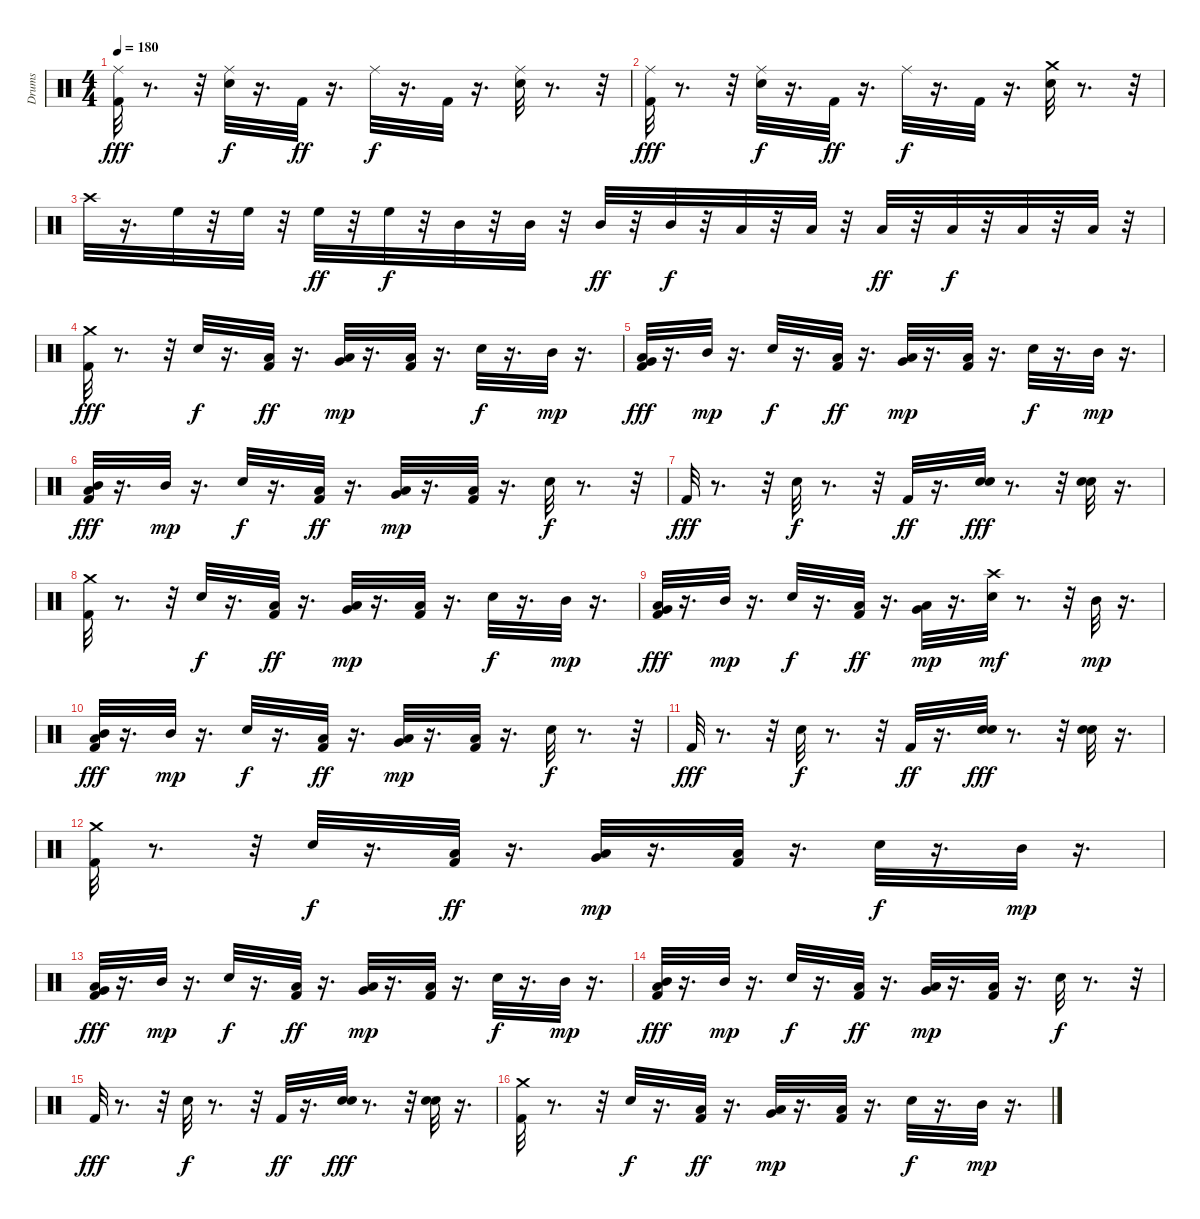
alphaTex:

\track ("Drums" "Drums") {instrument percussion}
\staff {score}
\articulation defaults
\ts (4 4)
\tempo 180
\clef neutral
\ks c
("Ride (middle)" "Kick (hit) 2").32{dy fff} r.8{d} r.32 ("Ride (middle)" "Snare (hit) 2").32{dy f} r.16{d} "Kick (hit) 2".32{dy ff} r.16{d} "Ride (middle)".32{dy f} r.16{d} "Kick (hit) 2".32 r.16{d} ("Ride (middle)" "Snare (hit) 2").32 r.8{d} r.32 |
("Ride (middle)" "Kick (hit) 2").32{dy fff} r.8{d} r.32 ("Ride (middle)" "Snare (hit) 2").32{dy f} r.16{d} "Kick (hit) 2".32{dy ff} r.16{d} "Ride (middle)".32{dy f} r.16{d} "Kick (hit) 2".32 r.16{d} ("Crash medium (hit)" "Snare (hit) 2").32 r.8{d} r.32 |
"Crash high (hit)".32 r.16{d} "High Floor Tom (hit)".32 r.32 "High Floor Tom (hit)".32 r.32 "High Floor Tom (hit)".32{dy ff} r.32 "High Floor Tom (hit)".32{dy f} r.32 "Mid Tom (hit)".32 r.32 "Mid Tom (hit)".32 r.32 "Mid Tom (hit)".32{dy ff} r.32 "Mid Tom (hit)".32{dy f} r.32 "Low Tom (hit)".32 r.32 "Low Tom (hit)".32 r.32 "Low Tom (hit)".32{dy ff} r.32 "Low Tom (hit)".32{dy f} r.32 "Low Floor Tom (hit)".32 r.32 "Low Floor Tom (hit)".32 r.32 |
("Kick (hit) 2" "Crash medium (hit)").32{dy fff} r.8{d} r.32 "Snare (hit) 2".32{dy f} r.16{d} ("Low Tom (hit)" "Kick (hit) 2").32{dy ff} r.16{d} ("Very Low Tom (hit)" "Low Floor Tom (hit)").32{dy mp} r.16{d} ("Low Tom (hit)" "Kick (hit) 2").32 r.16{d} "Snare (hit) 2".32{dy f} r.16{d} "Mid Tom (hit)".32{dy mp} r.16{d} |
("Low Tom (hit)" "Very Low Tom (hit)" "Kick (hit) 2").32{dy fff} r.16{d} "Mid Tom (hit)".32{dy mp} r.16{d} "Snare (hit) 2".32{dy f} r.16{d} ("Low Tom (hit)" "Kick (hit) 2").32{dy ff} r.16{d} ("Very Low Tom (hit)" "Low Floor Tom (hit)").32{dy mp} r.16{d} ("Low Tom (hit)" "Kick (hit) 2").32 r.16{d} "Snare (hit) 2".32{dy f} r.16{d} "Mid Tom (hit)".32{dy mp} r.16{d} |
("Mid Tom (hit)" "Low Tom (hit)" "Kick (hit) 2").32{dy fff} r.16{d} "Mid Tom (hit)".32{dy mp} r.16{d} "Snare (hit) 2".32{dy f} r.16{d} ("Low Tom (hit)" "Kick (hit) 2").32{dy ff} r.16{d} ("Very Low Tom (hit)" "Low Floor Tom (hit)").32{dy mp} r.16{d} ("Low Tom (hit)" "Kick (hit) 2").32 r.16{d} "Snare (hit) 2".32{dy f} r.8{d} r.32 |
"Kick (hit) 2".32{dy fff} r.8{d} r.32 "Snare (hit) 2".32{dy f} r.8{d} r.32 "Kick (hit) 2".32{dy ff} r.16{d} ("Electric Snare (hit)" "Snare (hit) 2").32{dy fff} r.8{d} r.32 ("Electric Snare (hit)" "Snare (hit) 2").32 r.16{d} |
("Kick (hit) 2" "Crash medium (hit)").32 r.8{d} r.32 "Snare (hit) 2".32{dy f} r.16{d} ("Low Tom (hit)" "Kick (hit) 2").32{dy ff} r.16{d} ("Very Low Tom (hit)" "Low Floor Tom (hit)").32{dy mp} r.16{d} ("Low Tom (hit)" "Kick (hit) 2").32 r.16{d} "Snare (hit) 2".32{dy f} r.16{d} "Mid Tom (hit)".32{dy mp} r.16{d} |
("Low Tom (hit)" "Very Low Tom (hit)" "Kick (hit) 2").32{dy fff} r.16{d} "Mid Tom (hit)".32{dy mp} r.16{d} "Snare (hit) 2".32{dy f} r.16{d} ("Low Tom (hit)" "Kick (hit) 2").32{dy ff} r.16{d} ("Very Low Tom (hit)" "Low Floor Tom (hit)").32{dy mp} r.16{d} ("Crash high (hit)" "Snare (hit) 2").32{dy mf} r.8{d} r.32 "Mid Tom (hit)".32{dy mp} r.16{d} |
("Mid Tom (hit)" "Low Tom (hit)" "Kick (hit) 2").32{dy fff} r.16{d} "Mid Tom (hit)".32{dy mp} r.16{d} "Snare (hit) 2".32{dy f} r.16{d} ("Low Tom (hit)" "Kick (hit) 2").32{dy ff} r.16{d} ("Very Low Tom (hit)" "Low Floor Tom (hit)").32{dy mp} r.16{d} ("Low Tom (hit)" "Kick (hit) 2").32 r.16{d} "Snare (hit) 2".32{dy f} r.8{d} r.32 |
"Kick (hit) 2".32{dy fff} r.8{d} r.32 "Snare (hit) 2".32{dy f} r.8{d} r.32 "Kick (hit) 2".32{dy ff} r.16{d} ("Electric Snare (hit)" "Snare (hit) 2").32{dy fff} r.8{d} r.32 ("Electric Snare (hit)" "Snare (hit) 2").32 r.16{d} |
("Kick (hit) 2" "Crash medium (hit)").32 r.8{d} r.32 "Snare (hit) 2".32{dy f} r.16{d} ("Low Tom (hit)" "Kick (hit) 2").32{dy ff} r.16{d} ("Very Low Tom (hit)" "Low Floor Tom (hit)").32{dy mp} r.16{d} ("Low Tom (hit)" "Kick (hit) 2").32 r.16{d} "Snare (hit) 2".32{dy f} r.16{d} "Mid Tom (hit)".32{dy mp} r.16{d} |
("Low Tom (hit)" "Very Low Tom (hit)" "Kick (hit) 2").32{dy fff} r.16{d} "Mid Tom (hit)".32{dy mp} r.16{d} "Snare (hit) 2".32{dy f} r.16{d} ("Low Tom (hit)" "Kick (hit) 2").32{dy ff} r.16{d} ("Very Low Tom (hit)" "Low Floor Tom (hit)").32{dy mp} r.16{d} ("Low Tom (hit)" "Kick (hit) 2").32 r.16{d} "Snare (hit) 2".32{dy f} r.16{d} "Mid Tom (hit)".32{dy mp} r.16{d} |
("Mid Tom (hit)" "Low Tom (hit)" "Kick (hit) 2").32{dy fff} r.16{d} "Mid Tom (hit)".32{dy mp} r.16{d} "Snare (hit) 2".32{dy f} r.16{d} ("Low Tom (hit)" "Kick (hit) 2").32{dy ff} r.16{d} ("Very Low Tom (hit)" "Low Floor Tom (hit)").32{dy mp} r.16{d} ("Low Tom (hit)" "Kick (hit) 2").32 r.16{d} "Snare (hit) 2".32{dy f} r.8{d} r.32 |
"Kick (hit) 2".32{dy fff} r.8{d} r.32 "Snare (hit) 2".32{dy f} r.8{d} r.32 "Kick (hit) 2".32{dy ff} r.16{d} ("Electric Snare (hit)" "Snare (hit) 2").32{dy fff} r.8{d} r.32 ("Electric Snare (hit)" "Snare (hit) 2").32 r.16{d} |
("Kick (hit) 2" "Crash medium (hit)").32 r.8{d} r.32 "Snare (hit) 2".32{dy f} r.16{d} ("Low Tom (hit)" "Kick (hit) 2").32{dy ff} r.16{d} ("Very Low Tom (hit)" "Low Floor Tom (hit)").32{dy mp} r.16{d} ("Low Tom (hit)" "Kick (hit) 2").32 r.16{d} "Snare (hit) 2".32{dy f} r.16{d} "Mid Tom (hit)".32{dy mp} r.16{d}
